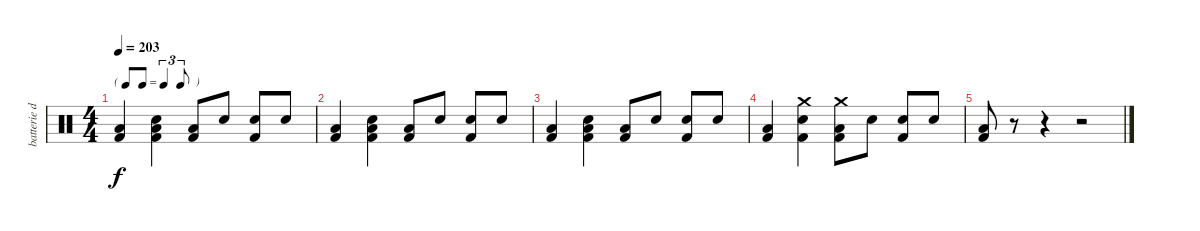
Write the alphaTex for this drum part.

\track ("batterie dub" "batterie d") {instrument percussion}
\staff {score}
\articulation defaults
\ts (4 4)
\tf triplet8th
\tempo 203
\clef neutral
\ks c
("Low Tom (hit)" "Kick (hit) 2").4{dy f} ("Low Tom (hit)" "Electric Snare (hit)" "Kick (hit) 2").4 ("Low Tom (hit)" "Kick (hit) 2").8 "Electric Snare (hit)".8 ("Electric Snare (hit)" "Kick (hit) 2").8 "Electric Snare (hit)".8 |
("Low Tom (hit)" "Kick (hit) 2").4 ("Low Tom (hit)" "Electric Snare (hit)" "Kick (hit) 2").4 ("Low Tom (hit)" "Kick (hit) 2").8 "Electric Snare (hit)".8 ("Electric Snare (hit)" "Kick (hit) 2").8 "Electric Snare (hit)".8 |
("Low Tom (hit)" "Kick (hit) 2").4 ("Low Tom (hit)" "Electric Snare (hit)" "Kick (hit) 2").4 ("Low Tom (hit)" "Kick (hit) 2").8 "Electric Snare (hit)".8 ("Electric Snare (hit)" "Kick (hit) 2").8 "Electric Snare (hit)".8 |
("Low Tom (hit)" "Kick (hit) 2").4 ("Crash medium (hit)" "Electric Snare (hit)" "Kick (hit) 2").4 ("Crash medium (hit)" "Low Tom (hit)" "Kick (hit) 2").8 "Electric Snare (hit)".8 ("Electric Snare (hit)" "Kick (hit) 2").8 "Electric Snare (hit)".8 |
("Low Tom (hit)" "Kick (hit) 2").8 r.8 r.4 r.2
